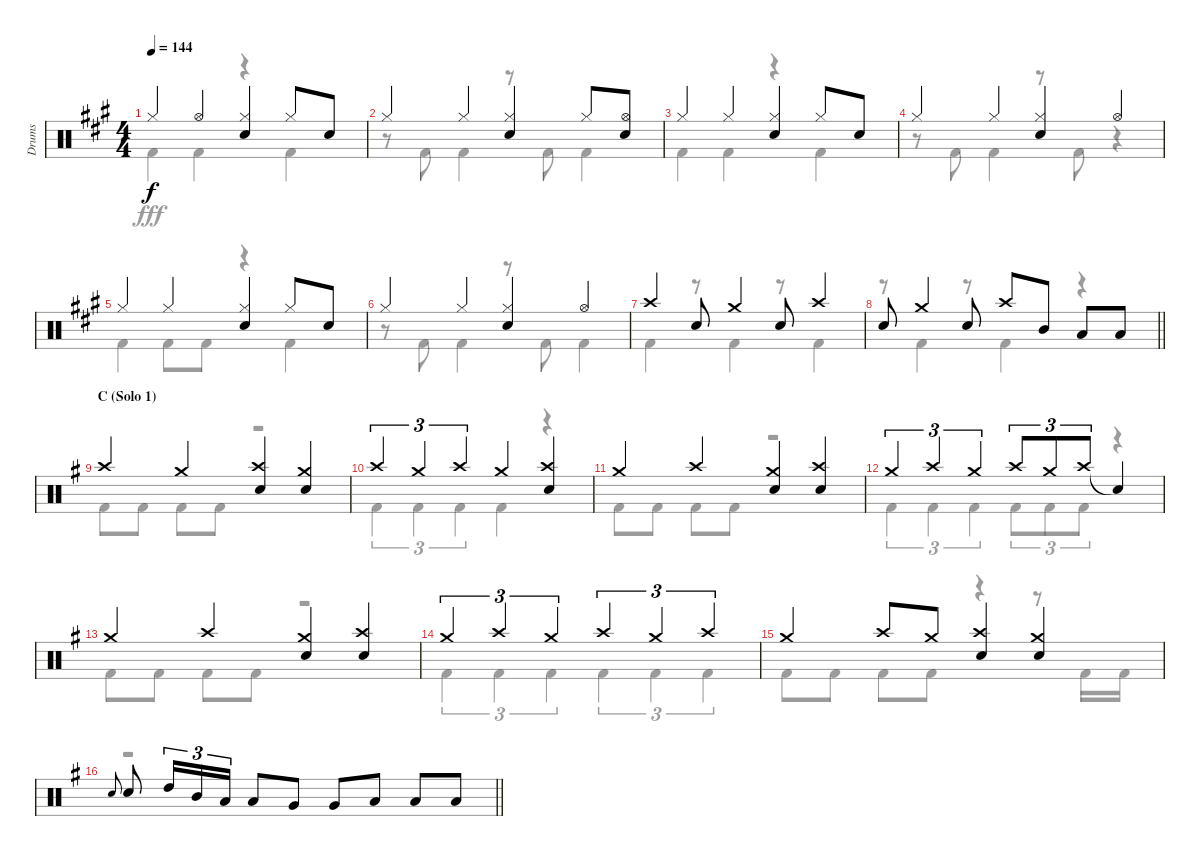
\track ("Drums" "Drums") {instrument percussion}
\staff {score}
\articulation defaults
\voice
\ts (4 4)
\tempo 144
\clef neutral
\ks a "Hi-Hat (closed)".4{dy f} "Hi-Hat (open)".4
("Hi-Hat (closed)" "Snare (hit) 2").4 "Hi-Hat (closed)".8 "Snare (hit) 2".8 |
"Hi-Hat (closed)".4 "Hi-Hat (closed)".4 ("Hi-Hat (closed)" "Snare (hit) 2").4 "Hi-Hat (closed)".8 ("Hi-Hat (open)" "Snare (hit) 2").8 |
"Hi-Hat (closed)".4 "Hi-Hat (closed)".4 ("Hi-Hat (closed)" "Snare (hit) 2").4 "Hi-Hat (closed)".8 "Snare (hit) 2".8 |
"Hi-Hat (closed)".4 "Hi-Hat (closed)".4 ("Hi-Hat (closed)" "Snare (hit) 2").4 "Hi-Hat (open)".4 |
"Hi-Hat (closed)".4 "Hi-Hat (closed)".4 ("Hi-Hat (closed)" "Snare (hit) 2").4 "Hi-Hat (closed)".8 "Snare (hit) 2".8 |
"Hi-Hat (closed)".4 "Hi-Hat (closed)".4 ("Hi-Hat (closed)" "Snare (hit) 2").4 "Hi-Hat (open)".4 |
"Crash high (hit)".4 "Snare (hit) 2".8 "Crash medium (hit)".4 "Snare (hit) 2".8 "Crash high (hit)".4 |
\barLineRight lightlight "Snare (hit) 2".8 "Crash medium (hit)".4 "Snare (hit) 2".8 "Crash high (hit)".8 "Mid Tom (hit)".8 "Low Tom (hit)".8 "Low Tom (hit)".8
|
\section ("" "C (Solo 1)")
\ks g "Crash high (hit)".4 "Crash medium (hit)".4
("Crash high (hit)" "Snare (hit) 2").4 ("Crash medium (hit)" "Snare (hit) 2").4 |
"Crash high (hit)".4{tu (3 2)} "Crash medium (hit)".4{tu (3 2)} "Crash high (hit)".4{tu (3 2)} "Crash medium (hit)".4 ("Crash high (hit)" "Snare (hit) 2").4 |
"Crash medium (hit)".4 "Crash high (hit)".4 ("Crash medium (hit)" "Snare (hit) 2").4 ("Crash high (hit)" "Snare (hit) 2").4 |
"Crash medium (hit)".4{tu (3 2)} "Crash high (hit)".4{tu (3 2)} "Crash medium (hit)".4{tu (3 2)} "Crash high (hit)".8{tu (3 2)} "Crash medium (hit)".8{tu (3 2)} "Crash high (hit)".8{tu (3 2)} "Snare (hit)"{t}.4 |
"Crash medium (hit)".4 "Crash high (hit)".4 ("Crash medium (hit)" "Snare (hit) 2").4 ("Crash high (hit)" "Snare (hit) 2").4 |
"Crash medium (hit)".4{tu (3 2)} "Crash high (hit)".4{tu (3 2)} "Crash medium (hit)".4{tu (3 2)} "Crash high (hit)".4{tu (3 2)} "Crash medium (hit)".4{tu (3 2)} "Crash high (hit)".4{tu (3 2)} |
"Crash medium (hit)".4 "Crash high (hit)".8 "Crash medium (hit)".8 ("Crash high (hit)" "Snare (hit) 2").4 ("Crash medium (hit)" "Snare (hit) 2").4 |
\barLineRight lightlight "Snare (hit) 2".8{gr onbeat} "Snare (hit) 2".8 "High Tom (hit)".16{tu (3 2)} "Mid Tom (hit)".16{tu (3 2)} "Low Tom (hit)".16{tu (3 2)} "Low Tom (hit)".8 "Very Low Tom (hit)".8 "Very Low Tom (hit)".8 "Low Floor Tom (hit)".8 "Low Floor Tom (hit)".8 "Low Floor Tom (hit)".8
\voice
\clef neutral
\ottava regular
\simile none
\ks a "Kick (hit) 2".4{dy fff} "Kick (hit) 2".4
r.4 "Kick (hit) 2".4 |
r.8 "Kick (hit) 2".8 "Kick (hit) 2".4 r.8 "Kick (hit) 2".8 "Kick (hit) 2".4 |
"Kick (hit) 2".4 "Kick (hit) 2".4 r.4 "Kick (hit) 2".4 |
r.8 "Kick (hit) 2".8 "Kick (hit) 2".4 r.8 "Kick (hit) 2".8 r.4 |
"Kick (hit) 2".4 "Kick (hit) 2".8 "Kick (hit) 2".8 r.4 "Kick (hit) 2".4 |
r.8 "Kick (hit) 2".8 "Kick (hit) 2".4 r.8 "Kick (hit) 2".8 "Kick (hit) 2".4 |
"Kick (hit) 2".4 r.8 "Kick (hit) 2".4 r.8 "Kick (hit) 2".4 |
\barLineRight lightlight
r.8 "Kick (hit) 2".4 r.8 "Kick (hit) 2".4 r.4 |
\ks g "Kick (hit) 2".8 "Kick (hit) 2".8 "Kick (hit) 2".8 "Kick (hit) 2".8
r.2 |
"Kick (hit) 2".4{tu (3 2)} "Kick (hit) 2".4{tu (3 2)} "Kick (hit) 2".4{tu (3 2)} "Kick (hit) 2".4 r.4 |
"Kick (hit) 2".8 "Kick (hit) 2".8 "Kick (hit) 2".8 "Kick (hit) 2".8 r.2 |
"Kick (hit) 2".4{tu (3 2)} "Kick (hit) 2".4{tu (3 2)} "Kick (hit) 2".4{tu (3 2)} "Kick (hit) 2".8{tu (3 2)} "Kick (hit) 2".8{tu (3 2)} "Kick (hit) 2".8{tu (3 2)} r.4 |
"Kick (hit) 2".8 "Kick (hit) 2".8 "Kick (hit) 2".8 "Kick (hit) 2".8 r.2 |
"Kick (hit) 2".4{tu (3 2)} "Kick (hit) 2".4{tu (3 2)} "Kick (hit) 2".4{tu (3 2)} "Kick (hit) 2".4{tu (3 2)} "Kick (hit) 2".4{tu (3 2)} "Kick (hit) 2".4{tu (3 2)} |
"Kick (hit) 2".8 "Kick (hit) 2".8 "Kick (hit) 2".8 "Kick (hit) 2".8 r.4 r.8 "Kick (hit) 2".16 "Kick (hit) 2".16 |
\barLineRight lightlight
r.1
